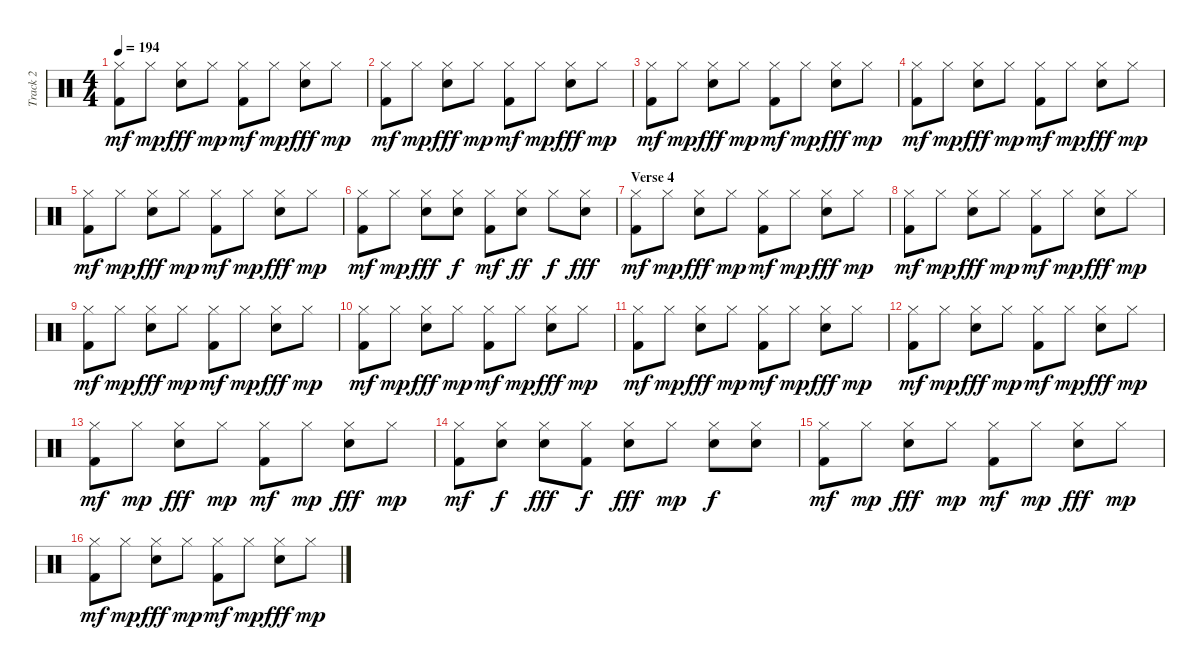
\track ("Track 2" "Track 2") {instrument percussion}
\staff {score}
\articulation defaults
\ts (4 4)
\tempo 194
\clef neutral
\ks c
("Hi-Hat (closed)" "Kick (hit) 2").8{dy mf} "Hi-Hat (closed)".8{dy mp} ("Hi-Hat (closed)" "Snare (hit)").8{dy fff} "Hi-Hat (closed)".8{dy mp} ("Hi-Hat (closed)" "Kick (hit) 2").8{dy mf} "Hi-Hat (closed)".8{dy mp} ("Hi-Hat (closed)" "Snare (hit)").8{dy fff} "Hi-Hat (closed)".8{dy mp} |
("Hi-Hat (closed)" "Kick (hit) 2").8{dy mf} "Hi-Hat (closed)".8{dy mp} ("Hi-Hat (closed)" "Snare (hit)").8{dy fff} "Hi-Hat (closed)".8{dy mp} ("Hi-Hat (closed)" "Kick (hit) 2").8{dy mf} "Hi-Hat (closed)".8{dy mp} ("Hi-Hat (closed)" "Snare (hit)").8{dy fff} "Hi-Hat (closed)".8{dy mp} |
("Hi-Hat (closed)" "Kick (hit) 2").8{dy mf} "Hi-Hat (closed)".8{dy mp} ("Hi-Hat (closed)" "Snare (hit)").8{dy fff} "Hi-Hat (closed)".8{dy mp} ("Hi-Hat (closed)" "Kick (hit) 2").8{dy mf} "Hi-Hat (closed)".8{dy mp} ("Hi-Hat (closed)" "Snare (hit)").8{dy fff} "Hi-Hat (closed)".8{dy mp} |
("Hi-Hat (closed)" "Kick (hit) 2").8{dy mf} "Hi-Hat (closed)".8{dy mp} ("Hi-Hat (closed)" "Snare (hit)").8{dy fff} "Hi-Hat (closed)".8{dy mp} ("Hi-Hat (closed)" "Kick (hit) 2").8{dy mf} "Hi-Hat (closed)".8{dy mp} ("Hi-Hat (closed)" "Snare (hit)").8{dy fff} "Hi-Hat (closed)".8{dy mp} |
("Hi-Hat (closed)" "Kick (hit) 2").8{dy mf} "Hi-Hat (closed)".8{dy mp} ("Hi-Hat (closed)" "Snare (hit)").8{dy fff} "Hi-Hat (closed)".8{dy mp} ("Hi-Hat (closed)" "Kick (hit) 2").8{dy mf} "Hi-Hat (closed)".8{dy mp} ("Hi-Hat (closed)" "Snare (hit)").8{dy fff} "Hi-Hat (closed)".8{dy mp} |
("Hi-Hat (closed)" "Kick (hit) 2").8{dy mf} "Hi-Hat (closed)".8{dy mp} ("Hi-Hat (closed)" "Snare (hit)").8{dy fff} ("Hi-Hat (closed)" "Snare (hit)").8{dy f} ("Hi-Hat (closed)" "Kick (hit) 2").8{dy mf} ("Hi-Hat (closed)" "Snare (hit)").8{dy ff} "Hi-Hat (closed)".8{dy f} ("Hi-Hat (closed)" "Snare (hit)").8{dy fff} |
\section ("" "Verse 4")
("Hi-Hat (closed)" "Kick (hit) 2").8{dy mf} "Hi-Hat (closed)".8{dy mp} ("Hi-Hat (closed)" "Snare (hit)").8{dy fff} "Hi-Hat (closed)".8{dy mp} ("Hi-Hat (closed)" "Kick (hit) 2").8{dy mf} "Hi-Hat (closed)".8{dy mp} ("Hi-Hat (closed)" "Snare (hit)").8{dy fff} "Hi-Hat (closed)".8{dy mp} |
("Hi-Hat (closed)" "Kick (hit) 2").8{dy mf} "Hi-Hat (closed)".8{dy mp} ("Hi-Hat (closed)" "Snare (hit)").8{dy fff} "Hi-Hat (closed)".8{dy mp} ("Hi-Hat (closed)" "Kick (hit) 2").8{dy mf} "Hi-Hat (closed)".8{dy mp} ("Hi-Hat (closed)" "Snare (hit)").8{dy fff} "Hi-Hat (closed)".8{dy mp} |
("Hi-Hat (closed)" "Kick (hit) 2").8{dy mf} "Hi-Hat (closed)".8{dy mp} ("Hi-Hat (closed)" "Snare (hit)").8{dy fff} "Hi-Hat (closed)".8{dy mp} ("Hi-Hat (closed)" "Kick (hit) 2").8{dy mf} "Hi-Hat (closed)".8{dy mp} ("Hi-Hat (closed)" "Snare (hit)").8{dy fff} "Hi-Hat (closed)".8{dy mp} |
("Hi-Hat (closed)" "Kick (hit) 2").8{dy mf} "Hi-Hat (closed)".8{dy mp} ("Hi-Hat (closed)" "Snare (hit)").8{dy fff} "Hi-Hat (closed)".8{dy mp} ("Hi-Hat (closed)" "Kick (hit) 2").8{dy mf} "Hi-Hat (closed)".8{dy mp} ("Hi-Hat (closed)" "Snare (hit)").8{dy fff} "Hi-Hat (closed)".8{dy mp} |
("Hi-Hat (closed)" "Kick (hit) 2").8{dy mf} "Hi-Hat (closed)".8{dy mp} ("Hi-Hat (closed)" "Snare (hit)").8{dy fff} "Hi-Hat (closed)".8{dy mp} ("Hi-Hat (closed)" "Kick (hit) 2").8{dy mf} "Hi-Hat (closed)".8{dy mp} ("Hi-Hat (closed)" "Snare (hit)").8{dy fff} "Hi-Hat (closed)".8{dy mp} |
("Hi-Hat (closed)" "Kick (hit) 2").8{dy mf} "Hi-Hat (closed)".8{dy mp} ("Hi-Hat (closed)" "Snare (hit)").8{dy fff} "Hi-Hat (closed)".8{dy mp} ("Hi-Hat (closed)" "Kick (hit) 2").8{dy mf} "Hi-Hat (closed)".8{dy mp} ("Hi-Hat (closed)" "Snare (hit)").8{dy fff} "Hi-Hat (closed)".8{dy mp} |
("Hi-Hat (closed)" "Kick (hit) 2").8{dy mf} "Hi-Hat (closed)".8{dy mp} ("Hi-Hat (closed)" "Snare (hit)").8{dy fff} "Hi-Hat (closed)".8{dy mp} ("Hi-Hat (closed)" "Kick (hit) 2").8{dy mf} "Hi-Hat (closed)".8{dy mp} ("Hi-Hat (closed)" "Snare (hit)").8{dy fff} "Hi-Hat (closed)".8{dy mp} |
("Hi-Hat (closed)" "Kick (hit) 2").8{dy mf} ("Hi-Hat (closed)" "Snare (hit)").8{dy f} ("Hi-Hat (closed)" "Snare (hit)").8{dy fff} ("Hi-Hat (closed)" "Kick (hit) 2").8{dy f} ("Hi-Hat (closed)" "Snare (hit)").8{dy fff} "Hi-Hat (closed)".8{dy mp} ("Hi-Hat (closed)" "Snare (hit)").8{dy f} ("Hi-Hat (closed)" "Snare (hit)").8 |
("Hi-Hat (closed)" "Kick (hit) 2").8{dy mf} "Hi-Hat (closed)".8{dy mp} ("Hi-Hat (closed)" "Snare (hit)").8{dy fff} "Hi-Hat (closed)".8{dy mp} ("Hi-Hat (closed)" "Kick (hit) 2").8{dy mf} "Hi-Hat (closed)".8{dy mp} ("Hi-Hat (closed)" "Snare (hit)").8{dy fff} "Hi-Hat (closed)".8{dy mp} |
("Hi-Hat (closed)" "Kick (hit) 2").8{dy mf} "Hi-Hat (closed)".8{dy mp} ("Hi-Hat (closed)" "Snare (hit)").8{dy fff} "Hi-Hat (closed)".8{dy mp} ("Hi-Hat (closed)" "Kick (hit) 2").8{dy mf} "Hi-Hat (closed)".8{dy mp} ("Hi-Hat (closed)" "Snare (hit)").8{dy fff} "Hi-Hat (closed)".8{dy mp}
